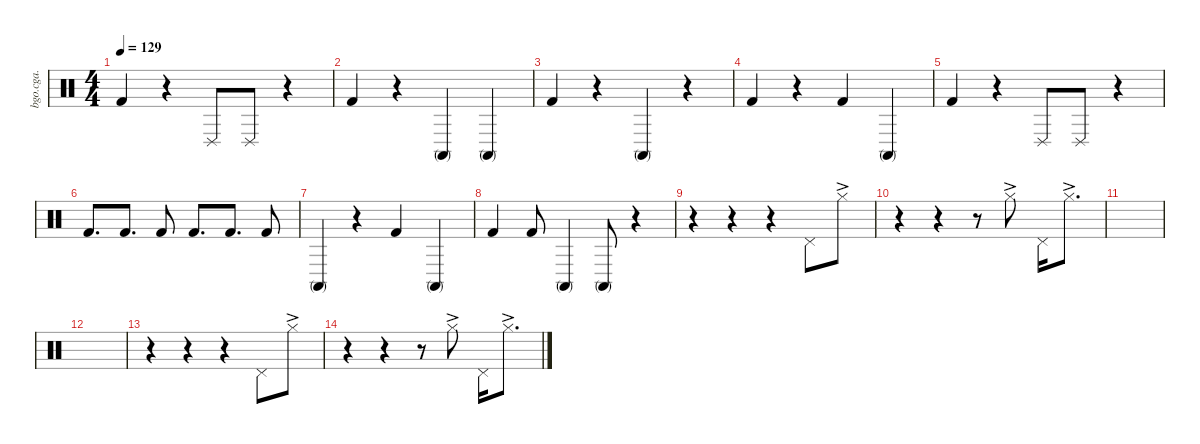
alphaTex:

\defaultSystemsLayout 4
\hideDynamics
\bracketExtendMode nobrackets
\otherSystemsTrackNameOrientation horizontal
\track ("Alex's percussion" "bgo.cga.") {instrument percussion}
\staff {score}
\articulation defaults
\ts (4 4)
\tempo 129
\clef neutral
\ks c "Kick (hit) 2".4{dy mf}
r.4 "Conga low (slap)".8 "Conga low (slap)".8 r.4 |
"Kick (hit) 2".4 r.4 "Conga high (mute)".4 "Conga high (mute)".4 |
"Kick (hit) 2".4 r.4 "Conga high (mute)".4 r.4 |
"Kick (hit) 2".4 r.4 "Kick (hit) 2".4 "Conga high (mute)".4 |
"Kick (hit) 2".4 r.4 "Conga low (slap)".8 "Conga low (slap)".8 r.4 |
"Kick (hit) 2".8{d} "Kick (hit) 2".8{d} "Kick (hit) 2".8 "Kick (hit) 2".8{d} "Kick (hit) 2".8{d} "Kick (hit) 2".8 |
"Conga high (mute)".4 r.4 "Kick (hit) 2".4 "Conga high (mute)".4 |
"Kick (hit) 2".4 "Kick (hit) 2".8 "Conga high (mute)".4{dy f} "Conga high (mute)".8 r.4 |
r.4 r.4 r.4 "Pedal Hi-Hat (hit)".8{dy mf} "Hi-Hat (closed)"{ac}.8 |
r.4 r.4 r.8 "Hi-Hat (closed)"{ac}.8 "Pedal Hi-Hat (hit)".16 "Hi-Hat (closed)"{ac}.8{d} |
|
|
r.4 r.4 r.4 "Pedal Hi-Hat (hit)".8 "Hi-Hat (closed)"{ac}.8 |
r.4 r.4 r.8 "Hi-Hat (closed)"{ac}.8 "Pedal Hi-Hat (hit)".16 "Hi-Hat (closed)"{ac}.8{d}
